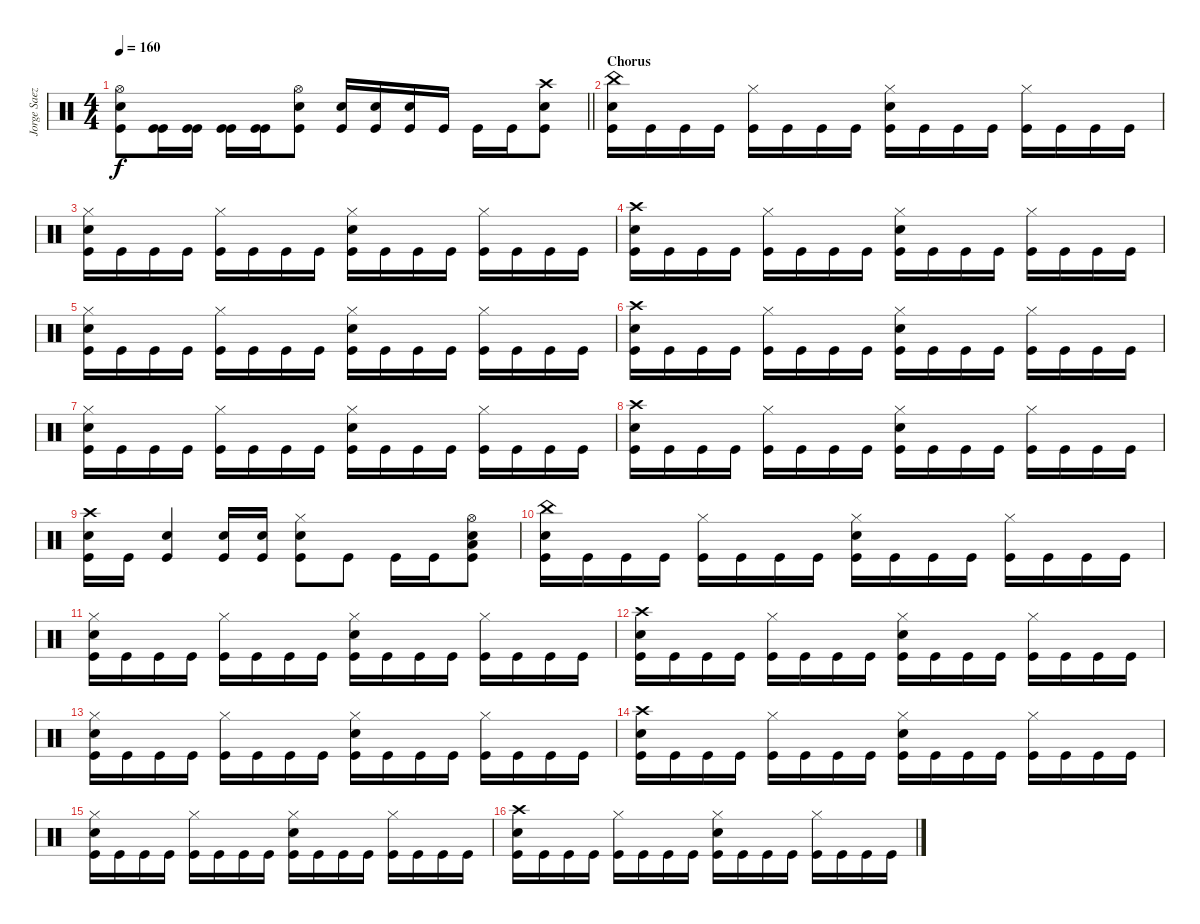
\track ("Jorge Saez" "Jorge Saez") {instrument percussion}
\staff {score}
\articulation defaults
\ts (4 4)
\tempo 160
\clef neutral
\barLineRight lightlight
\ks c
("Hi-Hat (open)" "Electric Snare (hit)" "Kick (hit)").8{dy f} ("Kick (hit)" "Kick (hit)").16 ("Kick (hit)" "Kick (hit)").16 ("Kick (hit)" "Kick (hit)").16 ("Kick (hit)" "Kick (hit)").16 ("Hi-Hat (open)" "Electric Snare (hit)" "Kick (hit)").8 ("Snare (hit) 2" "Kick (hit)").16 ("Snare (hit) 2" "Kick (hit)").16 ("Snare (hit) 2" "Kick (hit)").16 "Kick (hit)".16 "Kick (hit)".16 "Kick (hit)".16 ("Crash high (hit)" "Electric Snare (hit)" "Kick (hit)").8 |
\section ("" "Chorus")
("China (hit)" "Electric Snare (hit)" "Kick (hit)").16 "Kick (hit)".16 "Kick (hit)".16 "Kick (hit)".16 ("Hi-Hat (closed)" "Kick (hit)").16 "Kick (hit)".16 "Kick (hit)".16 "Kick (hit)".16 ("Hi-Hat (closed)" "Snare (hit) 2" "Kick (hit)").16 "Kick (hit)".16 "Kick (hit)".16 "Kick (hit)".16 ("Hi-Hat (closed)" "Kick (hit)").16 "Kick (hit)".16 "Kick (hit)".16 "Kick (hit)".16 |
("Hi-Hat (closed)" "Snare (hit) 2" "Kick (hit)").16 "Kick (hit)".16 "Kick (hit)".16 "Kick (hit)".16 ("Hi-Hat (closed)" "Kick (hit)").16 "Kick (hit)".16 "Kick (hit)".16 "Kick (hit)".16 ("Hi-Hat (closed)" "Snare (hit) 2" "Kick (hit)").16 "Kick (hit)".16 "Kick (hit)".16 "Kick (hit)".16 ("Hi-Hat (closed)" "Kick (hit)").16 "Kick (hit)".16 "Kick (hit)".16 "Kick (hit)".16 |
("Crash high (hit)" "Electric Snare (hit)" "Kick (hit)").16 "Kick (hit)".16 "Kick (hit)".16 "Kick (hit)".16 ("Hi-Hat (closed)" "Kick (hit)").16 "Kick (hit)".16 "Kick (hit)".16 "Kick (hit)".16 ("Hi-Hat (closed)" "Snare (hit) 2" "Kick (hit)").16 "Kick (hit)".16 "Kick (hit)".16 "Kick (hit)".16 ("Hi-Hat (closed)" "Kick (hit)").16 "Kick (hit)".16 "Kick (hit)".16 "Kick (hit)".16 |
("Hi-Hat (closed)" "Snare (hit) 2" "Kick (hit)").16 "Kick (hit)".16 "Kick (hit)".16 "Kick (hit)".16 ("Hi-Hat (closed)" "Kick (hit)").16 "Kick (hit)".16 "Kick (hit)".16 "Kick (hit)".16 ("Hi-Hat (closed)" "Snare (hit) 2" "Kick (hit)").16 "Kick (hit)".16 "Kick (hit)".16 "Kick (hit)".16 ("Hi-Hat (closed)" "Kick (hit)").16 "Kick (hit)".16 "Kick (hit)".16 "Kick (hit)".16 |
("Crash high (hit)" "Electric Snare (hit)" "Kick (hit)").16 "Kick (hit)".16 "Kick (hit)".16 "Kick (hit)".16 ("Hi-Hat (closed)" "Kick (hit)").16 "Kick (hit)".16 "Kick (hit)".16 "Kick (hit)".16 ("Hi-Hat (closed)" "Snare (hit) 2" "Kick (hit)").16 "Kick (hit)".16 "Kick (hit)".16 "Kick (hit)".16 ("Hi-Hat (closed)" "Kick (hit)").16 "Kick (hit)".16 "Kick (hit)".16 "Kick (hit)".16 |
("Hi-Hat (closed)" "Snare (hit) 2" "Kick (hit)").16 "Kick (hit)".16 "Kick (hit)".16 "Kick (hit)".16 ("Hi-Hat (closed)" "Kick (hit)").16 "Kick (hit)".16 "Kick (hit)".16 "Kick (hit)".16 ("Hi-Hat (closed)" "Snare (hit) 2" "Kick (hit)").16 "Kick (hit)".16 "Kick (hit)".16 "Kick (hit)".16 ("Hi-Hat (closed)" "Kick (hit)").16 "Kick (hit)".16 "Kick (hit)".16 "Kick (hit)".16 |
("Crash high (hit)" "Electric Snare (hit)" "Kick (hit)").16 "Kick (hit)".16 "Kick (hit)".16 "Kick (hit)".16 ("Hi-Hat (closed)" "Kick (hit)").16 "Kick (hit)".16 "Kick (hit)".16 "Kick (hit)".16 ("Hi-Hat (closed)" "Snare (hit) 2" "Kick (hit)").16 "Kick (hit)".16 "Kick (hit)".16 "Kick (hit)".16 ("Hi-Hat (closed)" "Kick (hit)").16 "Kick (hit)".16 "Kick (hit)".16 "Kick (hit)".16 |
("Crash high (hit)" "Snare (hit) 2" "Kick (hit)").16 "Kick (hit)".16 ("Snare (hit) 2" "Kick (hit)").4 ("Snare (hit) 2" "Kick (hit)").16 ("Snare (hit) 2" "Kick (hit)").16 ("Hi-Hat (closed)" "Snare (hit) 2" "Kick (hit)").8 "Kick (hit)".8 "Kick (hit)".16 "Kick (hit)".16 ("Hi-Hat (open)" "Low Floor Tom (hit)" "Snare (hit) 2" "Kick (hit)").8 |
("China (hit)" "Electric Snare (hit)" "Kick (hit)").16 "Kick (hit)".16 "Kick (hit)".16 "Kick (hit)".16 ("Hi-Hat (closed)" "Kick (hit)").16 "Kick (hit)".16 "Kick (hit)".16 "Kick (hit)".16 ("Hi-Hat (closed)" "Snare (hit) 2" "Kick (hit)").16 "Kick (hit)".16 "Kick (hit)".16 "Kick (hit)".16 ("Hi-Hat (closed)" "Kick (hit)").16 "Kick (hit)".16 "Kick (hit)".16 "Kick (hit)".16 |
("Hi-Hat (closed)" "Snare (hit) 2" "Kick (hit)").16 "Kick (hit)".16 "Kick (hit)".16 "Kick (hit)".16 ("Hi-Hat (closed)" "Kick (hit)").16 "Kick (hit)".16 "Kick (hit)".16 "Kick (hit)".16 ("Hi-Hat (closed)" "Snare (hit) 2" "Kick (hit)").16 "Kick (hit)".16 "Kick (hit)".16 "Kick (hit)".16 ("Hi-Hat (closed)" "Kick (hit)").16 "Kick (hit)".16 "Kick (hit)".16 "Kick (hit)".16 |
("Crash high (hit)" "Electric Snare (hit)" "Kick (hit)").16 "Kick (hit)".16 "Kick (hit)".16 "Kick (hit)".16 ("Hi-Hat (closed)" "Kick (hit)").16 "Kick (hit)".16 "Kick (hit)".16 "Kick (hit)".16 ("Hi-Hat (closed)" "Snare (hit) 2" "Kick (hit)").16 "Kick (hit)".16 "Kick (hit)".16 "Kick (hit)".16 ("Hi-Hat (closed)" "Kick (hit)").16 "Kick (hit)".16 "Kick (hit)".16 "Kick (hit)".16 |
("Hi-Hat (closed)" "Snare (hit) 2" "Kick (hit)").16 "Kick (hit)".16 "Kick (hit)".16 "Kick (hit)".16 ("Hi-Hat (closed)" "Kick (hit)").16 "Kick (hit)".16 "Kick (hit)".16 "Kick (hit)".16 ("Hi-Hat (closed)" "Snare (hit) 2" "Kick (hit)").16 "Kick (hit)".16 "Kick (hit)".16 "Kick (hit)".16 ("Hi-Hat (closed)" "Kick (hit)").16 "Kick (hit)".16 "Kick (hit)".16 "Kick (hit)".16 |
("Crash high (hit)" "Electric Snare (hit)" "Kick (hit)").16 "Kick (hit)".16 "Kick (hit)".16 "Kick (hit)".16 ("Hi-Hat (closed)" "Kick (hit)").16 "Kick (hit)".16 "Kick (hit)".16 "Kick (hit)".16 ("Hi-Hat (closed)" "Snare (hit) 2" "Kick (hit)").16 "Kick (hit)".16 "Kick (hit)".16 "Kick (hit)".16 ("Hi-Hat (closed)" "Kick (hit)").16 "Kick (hit)".16 "Kick (hit)".16 "Kick (hit)".16 |
("Hi-Hat (closed)" "Snare (hit) 2" "Kick (hit)").16 "Kick (hit)".16 "Kick (hit)".16 "Kick (hit)".16 ("Hi-Hat (closed)" "Kick (hit)").16 "Kick (hit)".16 "Kick (hit)".16 "Kick (hit)".16 ("Hi-Hat (closed)" "Snare (hit) 2" "Kick (hit)").16 "Kick (hit)".16 "Kick (hit)".16 "Kick (hit)".16 ("Hi-Hat (closed)" "Kick (hit)").16 "Kick (hit)".16 "Kick (hit)".16 "Kick (hit)".16 |
("Crash high (hit)" "Electric Snare (hit)" "Kick (hit)").16 "Kick (hit)".16 "Kick (hit)".16 "Kick (hit)".16 ("Hi-Hat (closed)" "Kick (hit)").16 "Kick (hit)".16 "Kick (hit)".16 "Kick (hit)".16 ("Hi-Hat (closed)" "Snare (hit) 2" "Kick (hit)").16 "Kick (hit)".16 "Kick (hit)".16 "Kick (hit)".16 ("Hi-Hat (closed)" "Kick (hit)").16 "Kick (hit)".16 "Kick (hit)".16 "Kick (hit)".16
